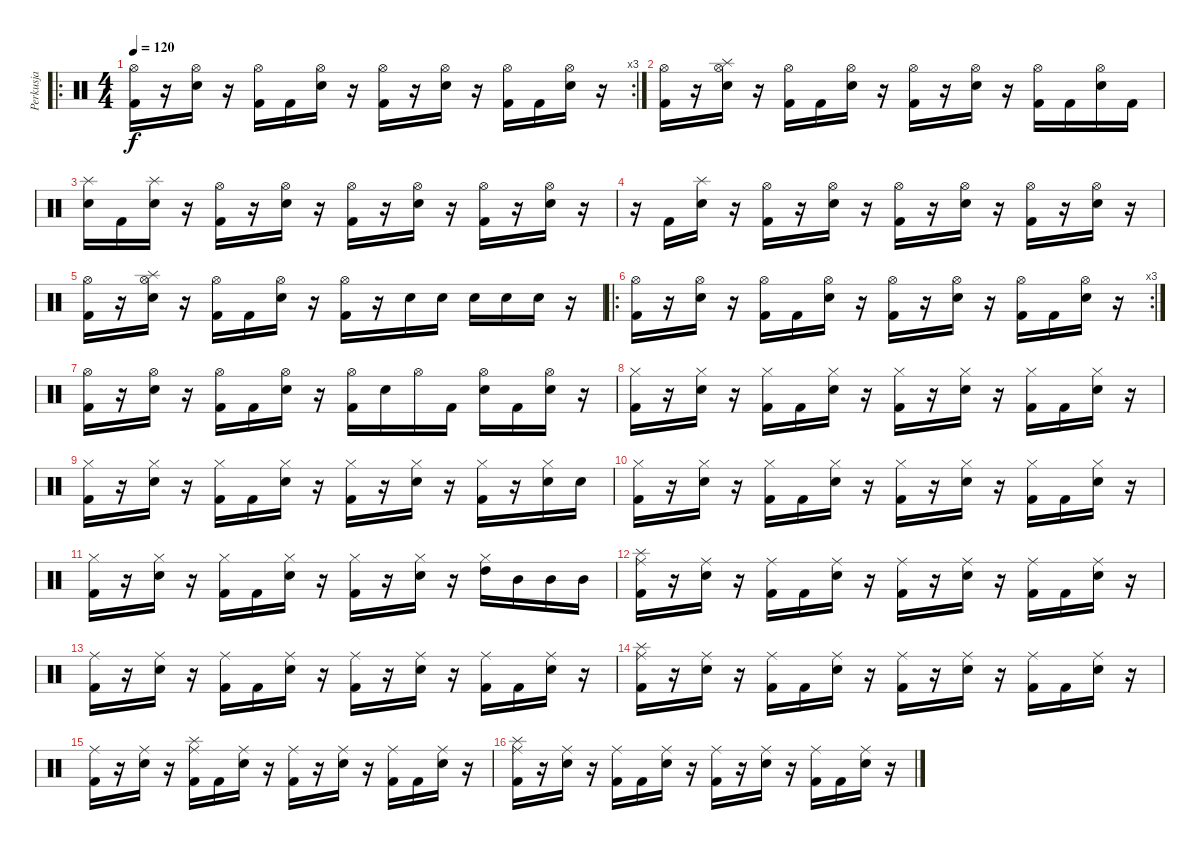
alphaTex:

\track ("Perkusja" "Perkusja") {instrument percussion}
\staff {score}
\articulation defaults
\ro
\rc 3
\ts (4 4)
\tempo 120
\clef neutral
\ks c
("Hi-Hat (open)" "Kick (hit) 2").16{dy f} r.16 ("Hi-Hat (open)" "Electric Snare (hit)").16 r.16 ("Hi-Hat (open)" "Kick (hit) 2").16 "Kick (hit) 2".16 ("Hi-Hat (open)" "Electric Snare (hit)").16 r.16 ("Hi-Hat (open)" "Kick (hit) 2").16 r.16 ("Hi-Hat (open)" "Electric Snare (hit)").16 r.16 ("Hi-Hat (open)" "Kick (hit) 2").16 "Kick (hit) 2".16 ("Hi-Hat (open)" "Electric Snare (hit)").16 r.16 |
("Hi-Hat (open)" "Kick (hit) 2").16 r.16 ("Splash (hit)" "Hi-Hat (open)" "Electric Snare (hit)").16 r.16 ("Hi-Hat (open)" "Kick (hit) 2").16 "Kick (hit) 2".16 ("Hi-Hat (open)" "Electric Snare (hit)").16 r.16 ("Hi-Hat (open)" "Kick (hit) 2").16 r.16 ("Hi-Hat (open)" "Electric Snare (hit)").16 r.16 ("Hi-Hat (open)" "Kick (hit) 2").16 "Kick (hit) 2".16 ("Hi-Hat (open)" "Electric Snare (hit)").16 "Kick (hit) 2".16 |
("Splash (hit)" "Electric Snare (hit)").16 "Kick (hit) 2".16 ("Splash (hit)" "Electric Snare (hit)").16 r.16 ("Hi-Hat (open)" "Kick (hit) 2").16 r.16 ("Hi-Hat (open)" "Electric Snare (hit)").16 r.16 ("Hi-Hat (open)" "Kick (hit) 2").16 r.16 ("Hi-Hat (open)" "Electric Snare (hit)").16 r.16 ("Hi-Hat (open)" "Kick (hit) 2").16 r.16 ("Hi-Hat (open)" "Electric Snare (hit)").16 r.16 |
r.16 "Kick (hit) 2".16 ("Splash (hit)" "Electric Snare (hit)").16 r.16 ("Hi-Hat (open)" "Kick (hit) 2").16 r.16 ("Hi-Hat (open)" "Electric Snare (hit)").16 r.16 ("Hi-Hat (open)" "Kick (hit) 2").16 r.16 ("Hi-Hat (open)" "Electric Snare (hit)").16 r.16 ("Hi-Hat (open)" "Kick (hit) 2").16 r.16 ("Hi-Hat (open)" "Electric Snare (hit)").16 r.16 |
("Hi-Hat (open)" "Kick (hit) 2").16 r.16 ("Splash (hit)" "Hi-Hat (open)" "Electric Snare (hit)").16 r.16 ("Hi-Hat (open)" "Kick (hit) 2").16 "Kick (hit) 2".16 ("Hi-Hat (open)" "Electric Snare (hit)").16 r.16 ("Hi-Hat (open)" "Kick (hit) 2").16 r.16 "Electric Snare (hit)".16 "Electric Snare (hit)".16 "Electric Snare (hit)".16 "Electric Snare (hit)".16 "Electric Snare (hit)".16 r.16 |
\ro
\rc 3
("Hi-Hat (open)" "Kick (hit) 2").16 r.16 ("Hi-Hat (open)" "Electric Snare (hit)").16 r.16 ("Hi-Hat (open)" "Kick (hit) 2").16 "Kick (hit) 2".16 ("Hi-Hat (open)" "Electric Snare (hit)").16 r.16 ("Hi-Hat (open)" "Kick (hit) 2").16 r.16 ("Hi-Hat (open)" "Electric Snare (hit)").16 r.16 ("Hi-Hat (open)" "Kick (hit) 2").16 "Kick (hit) 2".16 ("Hi-Hat (open)" "Electric Snare (hit)").16 r.16 |
("Hi-Hat (open)" "Kick (hit) 2").16 r.16 ("Hi-Hat (open)" "Electric Snare (hit)").16 r.16 ("Hi-Hat (open)" "Kick (hit) 2").16 "Kick (hit) 2".16 ("Hi-Hat (open)" "Electric Snare (hit)").16 r.16 ("Hi-Hat (open)" "Kick (hit) 2").16 "Electric Snare (hit)".16 "Hi-Hat (open)".16 "Kick (hit) 2".16 ("Hi-Hat (open)" "Electric Snare (hit)").16 "Kick (hit) 2".16 ("Hi-Hat (open)" "Electric Snare (hit)").16 r.16 |
("Hi-Hat (closed)" "Kick (hit) 2").16 r.16 ("Hi-Hat (closed)" "Electric Snare (hit)").16 r.16 ("Hi-Hat (closed)" "Kick (hit) 2").16 "Kick (hit) 2".16 ("Hi-Hat (closed)" "Electric Snare (hit)").16 r.16 ("Hi-Hat (closed)" "Kick (hit) 2").16 r.16 ("Hi-Hat (closed)" "Electric Snare (hit)").16 r.16 ("Hi-Hat (closed)" "Kick (hit) 2").16 "Kick (hit) 2".16 ("Hi-Hat (closed)" "Electric Snare (hit)").16 r.16 |
("Hi-Hat (closed)" "Kick (hit) 2").16 r.16 ("Hi-Hat (closed)" "Electric Snare (hit)").16 r.16 ("Hi-Hat (closed)" "Kick (hit) 2").16 "Kick (hit) 2".16 ("Hi-Hat (closed)" "Electric Snare (hit)").16 r.16 ("Hi-Hat (closed)" "Kick (hit) 2").16 r.16 ("Hi-Hat (closed)" "Electric Snare (hit)").16 r.16 ("Hi-Hat (closed)" "Kick (hit) 2").16 r.16 ("Hi-Hat (closed)" "Electric Snare (hit)").16 "Electric Snare (hit)".16 |
("Hi-Hat (closed)" "Kick (hit) 2").16 r.16 ("Hi-Hat (closed)" "Electric Snare (hit)").16 r.16 ("Hi-Hat (closed)" "Kick (hit) 2").16 "Kick (hit) 2".16 ("Hi-Hat (closed)" "Electric Snare (hit)").16 r.16 ("Hi-Hat (closed)" "Kick (hit) 2").16 r.16 ("Hi-Hat (closed)" "Electric Snare (hit)").16 r.16 ("Hi-Hat (closed)" "Kick (hit) 2").16 "Kick (hit) 2".16 ("Hi-Hat (closed)" "Electric Snare (hit)").16 r.16 |
("Hi-Hat (closed)" "Kick (hit) 2").16 r.16 ("Hi-Hat (closed)" "Electric Snare (hit)").16 r.16 ("Hi-Hat (closed)" "Kick (hit) 2").16 "Kick (hit) 2".16 ("Hi-Hat (closed)" "Electric Snare (hit)").16 r.16 ("Hi-Hat (closed)" "Kick (hit) 2").16 r.16 ("Hi-Hat (closed)" "Electric Snare (hit)").16 r.16 ("Hi-Hat (closed)" "High Tom (hit)").16 "Mid Tom (hit)".16 "Mid Tom (hit)".16 "Mid Tom (hit)".16 |
("Splash (hit)" "Ride (middle)" "Kick (hit) 2").16 r.16 ("Ride (middle)" "Electric Snare (hit)").16 r.16 ("Ride (middle)" "Kick (hit) 2").16 "Kick (hit) 2".16 ("Ride (middle)" "Electric Snare (hit)").16 r.16 ("Ride (middle)" "Kick (hit) 2").16 r.16 ("Ride (middle)" "Electric Snare (hit)").16 r.16 ("Ride (middle)" "Kick (hit) 2").16 "Kick (hit) 2".16 ("Ride (middle)" "Electric Snare (hit)").16 r.16 |
("Ride (middle)" "Kick (hit) 2").16 r.16 ("Ride (middle)" "Electric Snare (hit)").16 r.16 ("Ride (middle)" "Kick (hit) 2").16 "Kick (hit) 2".16 ("Ride (middle)" "Electric Snare (hit)").16 r.16 ("Ride (middle)" "Kick (hit) 2").16 r.16 ("Ride (middle)" "Electric Snare (hit)").16 r.16 ("Ride (middle)" "Kick (hit) 2").16 "Kick (hit) 2".16 ("Ride (middle)" "Electric Snare (hit)").16 r.16 |
("Splash (hit)" "Ride (middle)" "Kick (hit) 2").16 r.16 ("Ride (middle)" "Electric Snare (hit)").16 r.16 ("Ride (middle)" "Kick (hit) 2").16 "Kick (hit) 2".16 ("Ride (middle)" "Electric Snare (hit)").16 r.16 ("Ride (middle)" "Kick (hit) 2").16 r.16 ("Ride (middle)" "Electric Snare (hit)").16 r.16 ("Ride (middle)" "Kick (hit) 2").16 "Kick (hit) 2".16 ("Ride (middle)" "Electric Snare (hit)").16 r.16 |
("Ride (middle)" "Kick (hit) 2").16 r.16 ("Ride (middle)" "Electric Snare (hit)").16 r.16 ("Splash (hit)" "Ride (middle)" "Kick (hit) 2").16 "Kick (hit) 2".16 ("Ride (middle)" "Electric Snare (hit)").16 r.16 ("Ride (middle)" "Kick (hit) 2").16 r.16 ("Ride (middle)" "Electric Snare (hit)").16 r.16 ("Ride (middle)" "Kick (hit) 2").16 "Kick (hit) 2".16 ("Ride (middle)" "Electric Snare (hit)").16 r.16 |
("Splash (hit)" "Ride (middle)" "Kick (hit) 2").16 r.16 ("Ride (middle)" "Electric Snare (hit)").16 r.16 ("Ride (middle)" "Kick (hit) 2").16 "Kick (hit) 2".16 ("Ride (middle)" "Electric Snare (hit)").16 r.16 ("Ride (middle)" "Kick (hit) 2").16 r.16 ("Ride (middle)" "Electric Snare (hit)").16 r.16 ("Ride (middle)" "Kick (hit) 2").16 "Kick (hit) 2".16 ("Ride (middle)" "Electric Snare (hit)").16 r.16
